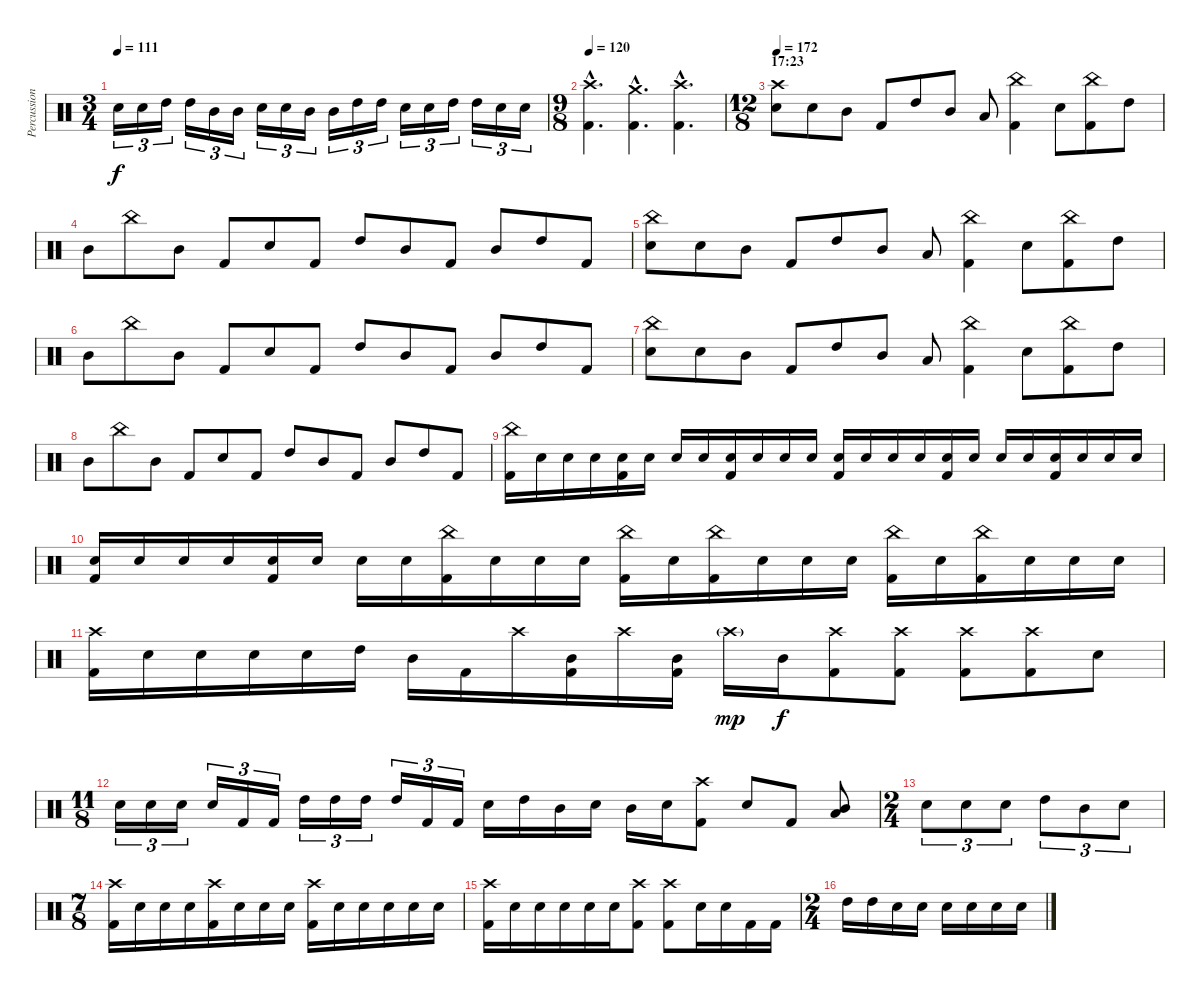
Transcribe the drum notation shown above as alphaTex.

\track ("Percussion" "Percussion") {instrument percussion}
\staff {score}
\articulation defaults
\ts (3 4)
\tempo 111
\clef neutral
\ks c "Electric Snare (hit)".16{tu (3 2) dy f} "Electric Snare (hit)".16{tu (3 2)} "High Tom (hit)".16{tu (3 2)} "High Tom (hit)".16{tu (3 2)} "Mid Tom (hit)".16{tu (3 2)} "Mid Tom (hit)".16{tu (3 2)} "Electric Snare (hit)".16{tu (3 2)} "Electric Snare (hit)".16{tu (3 2)} "Mid Tom (hit)".16{tu (3 2)} "Mid Tom (hit)".16{tu (3 2)} "High Tom (hit)".16{tu (3 2)} "High Tom (hit)".16{tu (3 2)} "Electric Snare (hit)".16{tu (3 2)} "Electric Snare (hit)".16{tu (3 2)} "High Tom (hit)".16{tu (3 2)} "High Tom (hit)".16{tu (3 2)} "Electric Snare (hit)".16{tu (3 2)} "Electric Snare (hit)".16{tu (3 2)}
|
\ts (9 8)
\tempo 120
("Crash high (hit)"{hac} "Kick (hit) 2"{hac}).4{d} ("Crash medium (hit)"{hac} "Kick (hit) 2"{hac}).4{d} ("Kick (hit) 2"{hac} "Crash high (hit)"{hac}).4{d} |
\ts (12 8)
\section ("" "17:23")
\tempo 172
("Crash high (hit)" "Electric Snare (hit)").8 "Electric Snare (hit)".8 "Mid Tom (hit)".8 "Kick (hit) 2".8 "High Tom (hit)".8 "Mid Tom (hit)".8 "Low Tom (hit)".8 ("China (hit)" "Kick (hit) 2").4 "Electric Snare (hit)".8 ("China (hit)" "Kick (hit) 2").8 "High Tom (hit)".8 |
"Mid Tom (hit)".8 "China (hit)".8 "Mid Tom (hit)".8 "Kick (hit) 2".8 "Electric Snare (hit)".8 "Kick (hit) 2".8 "High Tom (hit)".8 "Mid Tom (hit)".8 "Kick (hit) 2".8 "Mid Tom (hit)".8 "High Tom (hit)".8 "Kick (hit) 2".8 |
("China (hit)" "Electric Snare (hit)").8 "Electric Snare (hit)".8 "Mid Tom (hit)".8 "Kick (hit) 2".8 "High Tom (hit)".8 "Mid Tom (hit)".8 "Low Tom (hit)".8 ("China (hit)" "Kick (hit) 2").4 "Electric Snare (hit)".8 ("China (hit)" "Kick (hit) 2").8 "High Tom (hit)".8 |
"Mid Tom (hit)".8 "China (hit)".8 "Mid Tom (hit)".8 "Kick (hit) 2".8 "Electric Snare (hit)".8 "Kick (hit) 2".8 "High Tom (hit)".8 "Mid Tom (hit)".8 "Kick (hit) 2".8 "Mid Tom (hit)".8 "High Tom (hit)".8 "Kick (hit) 2".8 |
("China (hit)" "Electric Snare (hit)").8 "Electric Snare (hit)".8 "Mid Tom (hit)".8 "Kick (hit) 2".8 "High Tom (hit)".8 "Mid Tom (hit)".8 "Low Tom (hit)".8 ("China (hit)" "Kick (hit) 2").4 "Electric Snare (hit)".8 ("China (hit)" "Kick (hit) 2").8 "High Tom (hit)".8 |
"Mid Tom (hit)".8 "China (hit)".8 "Mid Tom (hit)".8 "Kick (hit) 2".8 "Electric Snare (hit)".8 "Kick (hit) 2".8 "High Tom (hit)".8 "Mid Tom (hit)".8 "Kick (hit) 2".8 "Mid Tom (hit)".8 "High Tom (hit)".8 "Kick (hit) 2".8 |
("China (hit)" "Kick (hit) 2").16 "Electric Snare (hit)".16 "Electric Snare (hit)".16 "Electric Snare (hit)".16 ("Kick (hit) 2" "Electric Snare (hit)").16 "Electric Snare (hit)".16 "Electric Snare (hit)".16 "Electric Snare (hit)".16 ("Electric Snare (hit)" "Kick (hit) 2").16 "Electric Snare (hit)".16 "Electric Snare (hit)".16 "Electric Snare (hit)".16 ("Electric Snare (hit)" "Kick (hit) 2").16 "Electric Snare (hit)".16 "Electric Snare (hit)".16 "Electric Snare (hit)".16 ("Electric Snare (hit)" "Kick (hit) 2").16 "Electric Snare (hit)".16 "Electric Snare (hit)".16 "Electric Snare (hit)".16 ("Electric Snare (hit)" "Kick (hit) 2").16 "Electric Snare (hit)".16 "Electric Snare (hit)".16 "Electric Snare (hit)".16 |
("Electric Snare (hit)" "Kick (hit) 2").16 "Electric Snare (hit)".16 "Electric Snare (hit)".16 "Electric Snare (hit)".16 ("Electric Snare (hit)" "Kick (hit) 2").16 "Electric Snare (hit)".16 "Electric Snare (hit)".16 "Electric Snare (hit)".16 ("China (hit)" "Kick (hit) 2").16 "Electric Snare (hit)".16 "Electric Snare (hit)".16 "Electric Snare (hit)".16 ("China (hit)" "Kick (hit) 2").16 "Electric Snare (hit)".16 ("China (hit)" "Kick (hit) 2").16 "Electric Snare (hit)".16 "Electric Snare (hit)".16 "Electric Snare (hit)".16 ("China (hit)" "Kick (hit) 2").16 "Electric Snare (hit)".16 ("China (hit)" "Kick (hit) 2").16 "Electric Snare (hit)".16 "Electric Snare (hit)".16 "Electric Snare (hit)".16 |
("Kick (hit) 2" "Crash high (hit)").16 "Electric Snare (hit)".16 "Electric Snare (hit)".16 "Electric Snare (hit)".16 "Electric Snare (hit)".16 "High Tom (hit)".16 "Mid Tom (hit)".16 "Kick (hit) 2".16 "Crash high (hit)".16 ("Kick (hit) 2" "Mid Tom (hit)").16 "Crash high (hit)".16 ("Kick (hit) 2" "Mid Tom (hit)").16 "Crash high (hit)"{g}.16{dy mp} "Mid Tom (hit)".16{dy f} ("Crash high (hit)" "Kick (hit) 2").8 ("Crash high (hit)" "Kick (hit) 2").8 ("Crash high (hit)" "Kick (hit) 2").8 ("Crash high (hit)" "Kick (hit) 2").8 "Electric Snare (hit)".8 |
\ts (11 8)
"Electric Snare (hit)".16{tu (3 2)} "Electric Snare (hit)".16{tu (3 2)} "Electric Snare (hit)".16{tu (3 2)} "Electric Snare (hit)".16{tu (3 2)} "Kick (hit) 2".16{tu (3 2)} "Kick (hit) 2".16{tu (3 2)} "High Tom (hit)".16{tu (3 2)} "High Tom (hit)".16{tu (3 2)} "High Tom (hit)".16{tu (3 2)} "High Tom (hit)".16{tu (3 2)} "Kick (hit) 2".16{tu (3 2)} "Kick (hit) 2".16{tu (3 2)} "Electric Snare (hit)".16 "High Tom (hit)".16 "Mid Tom (hit)".16 "Electric Snare (hit)".16 "Mid Tom (hit)".16 "Electric Snare (hit)".16 ("Crash high (hit)" "Kick (hit) 2").8 "Electric Snare (hit)".8 "Kick (hit) 2".8 ("Mid Tom (hit)" "Low Tom (hit)").8 |
\ts (2 4)
"Electric Snare (hit)".8{tu (3 2)} "Electric Snare (hit)".8{tu (3 2)} "Electric Snare (hit)".8{tu (3 2)} "High Tom (hit)".8{tu (3 2)} "Mid Tom (hit)".8{tu (3 2)} "Electric Snare (hit)".8{tu (3 2)} |
\ts (7 8)
("Crash high (hit)" "Kick (hit) 2").16 "Electric Snare (hit)".16 "Electric Snare (hit)".16 "Electric Snare (hit)".16 ("Crash high (hit)" "Kick (hit) 2").16 "Electric Snare (hit)".16 "Electric Snare (hit)".16 "Electric Snare (hit)".16 ("Crash high (hit)" "Kick (hit) 2").16 "Electric Snare (hit)".16 "Electric Snare (hit)".16 "Electric Snare (hit)".16 "Electric Snare (hit)".16 "Electric Snare (hit)".16 |
("Crash high (hit)" "Kick (hit) 2").16 "Electric Snare (hit)".16 "Electric Snare (hit)".16 "Electric Snare (hit)".16 "Electric Snare (hit)".16 "Electric Snare (hit)".16 ("Crash high (hit)" "Kick (hit) 2").8 ("Crash high (hit)" "Kick (hit) 2").8 "Electric Snare (hit)".16 "Electric Snare (hit)".16 "Kick (hit) 2".16 "Kick (hit) 2".16 |
\ts (2 4)
"High Tom (hit)".16 "High Tom (hit)".16 "Electric Snare (hit)".16 "Electric Snare (hit)".16 "Electric Snare (hit)".16 "Electric Snare (hit)".16 "Electric Snare (hit)".16 "Electric Snare (hit)".16
